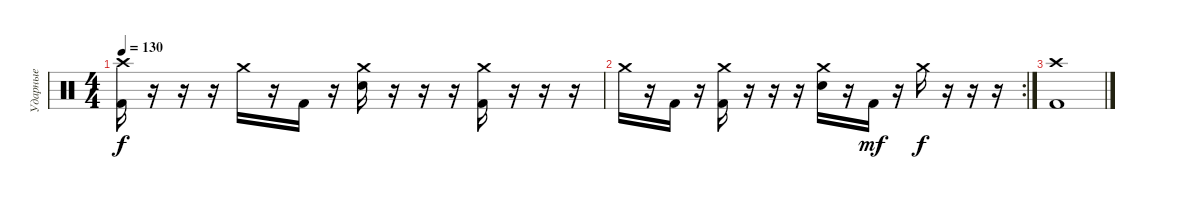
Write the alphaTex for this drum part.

\track ("Ударные" "Ударные") {instrument percussion}
\staff {score}
\articulation defaults
\ts (4 4)
\tempo 130
\clef neutral
\ks c
("Crash high (hit)" "Kick (hit) 2").16{dy f} r.16 r.16 r.16 "Crash medium (hit)".16 r.16 "Kick (hit) 2".16 r.16 ("Crash medium (hit)" "Electric Snare (hit)").16 r.16 r.16 r.16 ("Crash medium (hit)" "Kick (hit) 2").16 r.16 r.16 r.16 |
\rc 2 "Crash medium (hit)".16
r.16 "Kick (hit) 2".16 r.16 ("Crash medium (hit)" "Kick (hit) 2").16 r.16 r.16 r.16 ("Crash medium (hit)" "Electric Snare (hit)").16 r.16 "Kick (hit) 2".16{dy mf} r.16 "Crash medium (hit)".16{dy f} r.16 r.16 r.16 |
("Crash high (hit)" "Kick (hit) 2").1
